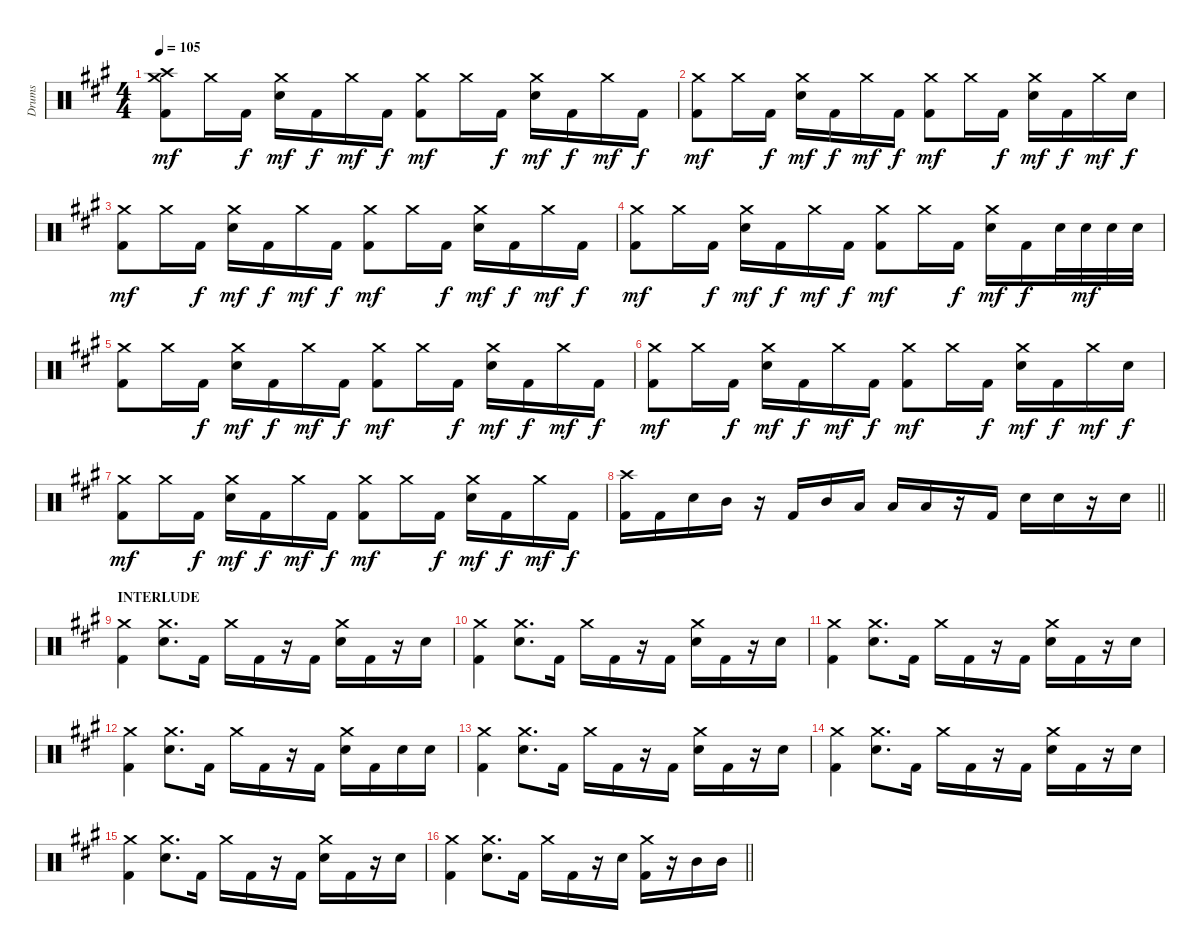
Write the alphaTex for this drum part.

\track ("Drums" "Drums") {instrument percussion}
\staff {score}
\articulation defaults
\ts (4 4)
\section ("" "")
\tempo 105
\clef neutral
\ks f#minor
("Crash high (hit)" "Crash medium (hit)" "Kick (hit) 2").8{dy mf} "Crash medium (hit)".16 "Kick (hit) 2".16{dy f} ("Electric Snare (hit)" "Crash medium (hit)").16{dy mf} "Kick (hit) 2".16{dy f} "Crash medium (hit)".16{dy mf} "Kick (hit) 2".16{dy f} ("Crash medium (hit)" "Kick (hit) 2").8{dy mf} "Crash medium (hit)".16 "Kick (hit) 2".16{dy f} ("Electric Snare (hit)" "Crash medium (hit)").16{dy mf} "Kick (hit) 2".16{dy f} "Crash medium (hit)".16{dy mf} "Kick (hit) 2".16{dy f} |
("Crash medium (hit)" "Kick (hit) 2").8{dy mf} "Crash medium (hit)".16 "Kick (hit) 2".16{dy f} ("Electric Snare (hit)" "Crash medium (hit)").16{dy mf} "Kick (hit) 2".16{dy f} "Crash medium (hit)".16{dy mf} "Kick (hit) 2".16{dy f} ("Crash medium (hit)" "Kick (hit) 2").8{dy mf} "Crash medium (hit)".16 "Kick (hit) 2".16{dy f} ("Electric Snare (hit)" "Crash medium (hit)").16{dy mf} "Kick (hit) 2".16{dy f} "Crash medium (hit)".16{dy mf} "Electric Snare (hit)".16{dy f} |
("Crash medium (hit)" "Kick (hit) 2").8{dy mf} "Crash medium (hit)".16 "Kick (hit) 2".16{dy f} ("Electric Snare (hit)" "Crash medium (hit)").16{dy mf} "Kick (hit) 2".16{dy f} "Crash medium (hit)".16{dy mf} "Kick (hit) 2".16{dy f} ("Crash medium (hit)" "Kick (hit) 2").8{dy mf} "Crash medium (hit)".16 "Kick (hit) 2".16{dy f} ("Electric Snare (hit)" "Crash medium (hit)").16{dy mf} "Kick (hit) 2".16{dy f} "Crash medium (hit)".16{dy mf} "Kick (hit) 2".16{dy f} |
("Crash medium (hit)" "Kick (hit) 2").8{dy mf} "Crash medium (hit)".16 "Kick (hit) 2".16{dy f} ("Electric Snare (hit)" "Crash medium (hit)").16{dy mf} "Kick (hit) 2".16{dy f} "Crash medium (hit)".16{dy mf} "Kick (hit) 2".16{dy f} ("Crash medium (hit)" "Kick (hit) 2").8{dy mf} "Crash medium (hit)".16 "Kick (hit) 2".16{dy f} ("Electric Snare (hit)" "Crash medium (hit)").16{dy mf} "Kick (hit) 2".16{dy f} "Electric Snare (hit)".32 "Electric Snare (hit)".32{dy mf} "Electric Snare (hit)".32 "Electric Snare (hit)".32 |
("Crash medium (hit)" "Kick (hit) 2").8 "Crash medium (hit)".16 "Kick (hit) 2".16{dy f} ("Electric Snare (hit)" "Crash medium (hit)").16{dy mf} "Kick (hit) 2".16{dy f} "Crash medium (hit)".16{dy mf} "Kick (hit) 2".16{dy f} ("Crash medium (hit)" "Kick (hit) 2").8{dy mf} "Crash medium (hit)".16 "Kick (hit) 2".16{dy f} ("Electric Snare (hit)" "Crash medium (hit)").16{dy mf} "Kick (hit) 2".16{dy f} "Crash medium (hit)".16{dy mf} "Kick (hit) 2".16{dy f} |
("Crash medium (hit)" "Kick (hit) 2").8{dy mf} "Crash medium (hit)".16 "Kick (hit) 2".16{dy f} ("Electric Snare (hit)" "Crash medium (hit)").16{dy mf} "Kick (hit) 2".16{dy f} "Crash medium (hit)".16{dy mf} "Kick (hit) 2".16{dy f} ("Crash medium (hit)" "Kick (hit) 2").8{dy mf} "Crash medium (hit)".16 "Kick (hit) 2".16{dy f} ("Electric Snare (hit)" "Crash medium (hit)").16{dy mf} "Kick (hit) 2".16{dy f} "Crash medium (hit)".16{dy mf} "Electric Snare (hit)".16{dy f} |
("Crash medium (hit)" "Kick (hit) 2").8{dy mf} "Crash medium (hit)".16 "Kick (hit) 2".16{dy f} ("Electric Snare (hit)" "Crash medium (hit)").16{dy mf} "Kick (hit) 2".16{dy f} "Crash medium (hit)".16{dy mf} "Kick (hit) 2".16{dy f} ("Crash medium (hit)" "Kick (hit) 2").8{dy mf} "Crash medium (hit)".16 "Kick (hit) 2".16{dy f} ("Electric Snare (hit)" "Crash medium (hit)").16{dy mf} "Kick (hit) 2".16{dy f} "Crash medium (hit)".16{dy mf} "Kick (hit) 2".16{dy f} |
\barLineRight lightlight
("Crash high (hit)" "Kick (hit) 2").16 "Kick (hit) 2".16 "Electric Snare (hit)".16 "Mid Tom (hit)".16 r.16 "Kick (hit) 2".16 "Mid Tom (hit)".16 "Low Tom (hit)".16 "Low Tom (hit)".16 "Low Tom (hit)".16 r.16 "Kick (hit) 2".16 "Electric Snare (hit)".16 "Electric Snare (hit)".16 r.16 "Electric Snare (hit)".16 |
\section ("" "INTERLUDE")
("Crash medium (hit)" "Kick (hit) 2").4 ("Electric Snare (hit)" "Crash medium (hit)").8{d} "Kick (hit) 2".16 "Crash medium (hit)".16 "Kick (hit) 2".16 r.16 "Kick (hit) 2".16 ("Electric Snare (hit)" "Crash medium (hit)").16 "Kick (hit) 2".16 r.16 "Electric Snare (hit)".16 |
("Crash medium (hit)" "Kick (hit) 2").4 ("Electric Snare (hit)" "Crash medium (hit)").8{d} "Kick (hit) 2".16 "Crash medium (hit)".16 "Kick (hit) 2".16 r.16 "Kick (hit) 2".16 ("Electric Snare (hit)" "Crash medium (hit)").16 "Kick (hit) 2".16 r.16 "Electric Snare (hit)".16 |
("Crash medium (hit)" "Kick (hit) 2").4 ("Electric Snare (hit)" "Crash medium (hit)").8{d} "Kick (hit) 2".16 "Crash medium (hit)".16 "Kick (hit) 2".16 r.16 "Kick (hit) 2".16 ("Electric Snare (hit)" "Crash medium (hit)").16 "Kick (hit) 2".16 r.16 "Electric Snare (hit)".16 |
("Crash medium (hit)" "Kick (hit) 2").4 ("Electric Snare (hit)" "Crash medium (hit)").8{d} "Kick (hit) 2".16 "Crash medium (hit)".16 "Kick (hit) 2".16 r.16 "Kick (hit) 2".16 ("Electric Snare (hit)" "Crash medium (hit)").16 "Kick (hit) 2".16 "Electric Snare (hit)".16 "Electric Snare (hit)".16 |
("Crash medium (hit)" "Kick (hit) 2").4 ("Electric Snare (hit)" "Crash medium (hit)").8{d} "Kick (hit) 2".16 "Crash medium (hit)".16 "Kick (hit) 2".16 r.16 "Kick (hit) 2".16 ("Electric Snare (hit)" "Crash medium (hit)").16 "Kick (hit) 2".16 r.16 "Electric Snare (hit)".16 |
("Crash medium (hit)" "Kick (hit) 2").4 ("Electric Snare (hit)" "Crash medium (hit)").8{d} "Kick (hit) 2".16 "Crash medium (hit)".16 "Kick (hit) 2".16 r.16 "Kick (hit) 2".16 ("Electric Snare (hit)" "Crash medium (hit)").16 "Kick (hit) 2".16 r.16 "Electric Snare (hit)".16 |
("Crash medium (hit)" "Kick (hit) 2").4 ("Electric Snare (hit)" "Crash medium (hit)").8{d} "Kick (hit) 2".16 "Crash medium (hit)".16 "Kick (hit) 2".16 r.16 "Kick (hit) 2".16 ("Electric Snare (hit)" "Crash medium (hit)").16 "Kick (hit) 2".16 r.16 "Electric Snare (hit)".16 |
\barLineRight lightlight
("Crash medium (hit)" "Kick (hit) 2").4 ("Electric Snare (hit)" "Crash medium (hit)").8{d} "Kick (hit) 2".16 "Crash medium (hit)".16 "Kick (hit) 2".16 r.16 "Electric Snare (hit)".16 ("Crash medium (hit)" "Kick (hit) 2").16 r.16 "Mid Tom (hit)".16 "Mid Tom (hit)".16
